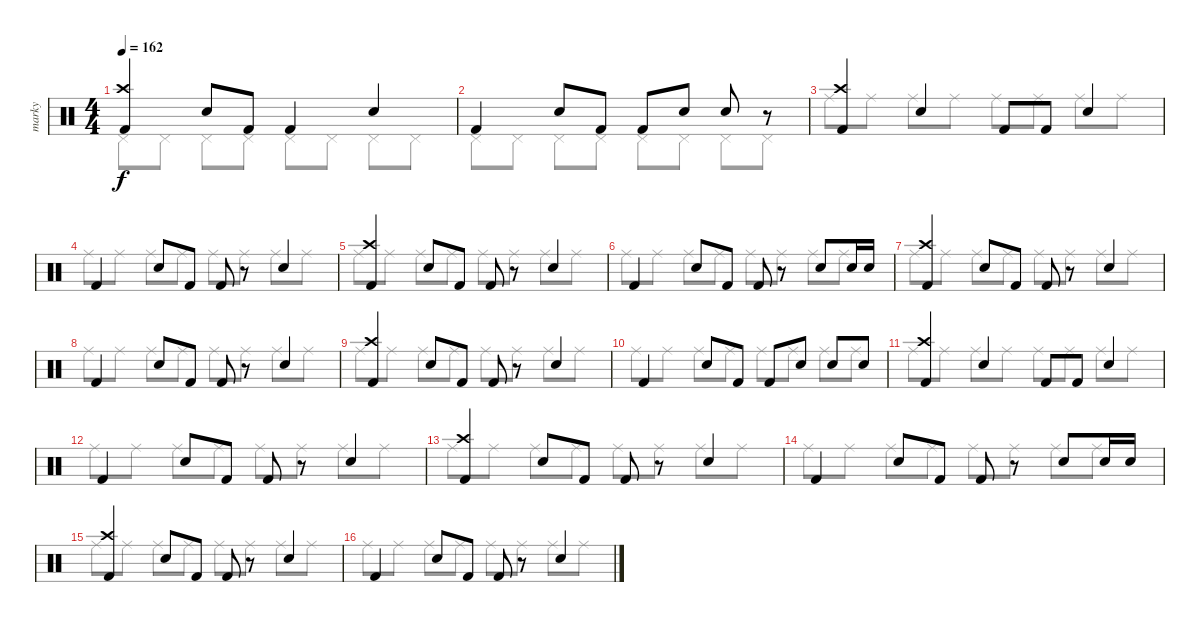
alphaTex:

\track ("marky" "marky") {instrument percussion}
\staff {score}
\articulation defaults
\voice
\ts (4 4)
\tempo 162
\clef neutral
\ks c
("Kick (hit) 2" "Crash high (hit)").4{dy f} "Electric Snare (hit)".8 "Kick (hit) 2".8 "Kick (hit) 2".4 "Electric Snare (hit)".4 |
"Kick (hit) 2".4 "Electric Snare (hit)".8 "Kick (hit) 2".8 "Kick (hit) 2".8 "Electric Snare (hit)".8 "Electric Snare (hit)".8 r.8 |
("Kick (hit) 2" "Crash high (hit)").4 "Electric Snare (hit)".4 "Kick (hit) 2".8 "Kick (hit) 2".8 "Electric Snare (hit)".4 |
"Kick (hit) 2".4 "Electric Snare (hit)".8 "Kick (hit) 2".8 "Kick (hit) 2".8 r.8 "Electric Snare (hit)".4 |
("Kick (hit) 2" "Crash high (hit)").4 "Electric Snare (hit)".8 "Kick (hit) 2".8 "Kick (hit) 2".8 r.8 "Electric Snare (hit)".4 |
"Kick (hit) 2".4 "Electric Snare (hit)".8 "Kick (hit) 2".8 "Kick (hit) 2".8 r.8 "Electric Snare (hit)".8 "Electric Snare (hit)".16 "Electric Snare (hit)".16 |
("Kick (hit) 2" "Crash high (hit)").4 "Electric Snare (hit)".8 "Kick (hit) 2".8 "Kick (hit) 2".8 r.8 "Electric Snare (hit)".4 |
"Kick (hit) 2".4 "Electric Snare (hit)".8 "Kick (hit) 2".8 "Kick (hit) 2".8 r.8 "Electric Snare (hit)".4 |
("Kick (hit) 2" "Crash high (hit)").4 "Electric Snare (hit)".8 "Kick (hit) 2".8 "Kick (hit) 2".8 r.8 "Electric Snare (hit)".4 |
"Kick (hit) 2".4 "Electric Snare (hit)".8 "Kick (hit) 2".8 "Kick (hit) 2".8 "Electric Snare (hit)".8 "Electric Snare (hit)".8 "Electric Snare (hit)".8 |
("Kick (hit) 2" "Crash high (hit)").4 "Electric Snare (hit)".4 "Kick (hit) 2".8 "Kick (hit) 2".8 "Electric Snare (hit)".4 |
"Kick (hit) 2".4 "Electric Snare (hit)".8 "Kick (hit) 2".8 "Kick (hit) 2".8 r.8 "Electric Snare (hit)".4 |
("Kick (hit) 2" "Crash high (hit)").4 "Electric Snare (hit)".8 "Kick (hit) 2".8 "Kick (hit) 2".8 r.8 "Electric Snare (hit)".4 |
"Kick (hit) 2".4 "Electric Snare (hit)".8 "Kick (hit) 2".8 "Kick (hit) 2".8 r.8 "Electric Snare (hit)".8 "Electric Snare (hit)".16 "Electric Snare (hit)".16 |
("Kick (hit) 2" "Crash high (hit)").4 "Electric Snare (hit)".8 "Kick (hit) 2".8 "Kick (hit) 2".8 r.8 "Electric Snare (hit)".4 |
"Kick (hit) 2".4 "Electric Snare (hit)".8 "Kick (hit) 2".8 "Kick (hit) 2".8 r.8 "Electric Snare (hit)".4
\voice
\clef neutral
\ottava regular
\simile none
\ks c "Pedal Hi-Hat (hit)".8{dy f} "Pedal Hi-Hat (hit)".8 "Pedal Hi-Hat (hit)".8 "Pedal Hi-Hat (hit)".8 "Pedal Hi-Hat (hit)".8 "Pedal Hi-Hat (hit)".8 "Pedal Hi-Hat (hit)".8 "Pedal Hi-Hat (hit)".8
|
"Pedal Hi-Hat (hit)".8 "Pedal Hi-Hat (hit)".8 "Pedal Hi-Hat (hit)".8 "Pedal Hi-Hat (hit)".8 "Pedal Hi-Hat (hit)".8 "Pedal Hi-Hat (hit)".8 "Pedal Hi-Hat (hit)".8 "Pedal Hi-Hat (hit)".8 |
"Ride (middle)".8 "Ride (middle)".8 "Ride (middle)".8 "Ride (middle)".8 "Ride (middle)".8 "Ride (middle)".8 "Ride (middle)".8 "Ride (middle)".8 |
"Ride (middle)".8 "Ride (middle)".8 "Ride (middle)".8 "Ride (middle)".8 "Ride (middle)".8 "Ride (middle)".8 "Ride (middle)".8 "Ride (middle)".8 |
"Ride (middle)".8 "Ride (middle)".8 "Ride (middle)".8 "Ride (middle)".8 "Ride (middle)".8 "Ride (middle)".8 "Ride (middle)".8 "Ride (middle)".8 |
"Ride (middle)".8 "Ride (middle)".8 "Ride (middle)".8 "Ride (middle)".8 "Ride (middle)".8 "Ride (middle)".8 "Ride (middle)".8 "Ride (middle)".8 |
"Ride (middle)".8 "Ride (middle)".8 "Ride (middle)".8 "Ride (middle)".8 "Ride (middle)".8 "Ride (middle)".8 "Ride (middle)".8 "Ride (middle)".8 |
"Ride (middle)".8 "Ride (middle)".8 "Ride (middle)".8 "Ride (middle)".8 "Ride (middle)".8 "Ride (middle)".8 "Ride (middle)".8 "Ride (middle)".8 |
"Ride (middle)".8 "Ride (middle)".8 "Ride (middle)".8 "Ride (middle)".8 "Ride (middle)".8 "Ride (middle)".8 "Ride (middle)".8 "Ride (middle)".8 |
"Ride (middle)".8 "Ride (middle)".8 "Ride (middle)".8 "Ride (middle)".8 "Ride (middle)".8 "Ride (middle)".8 "Ride (middle)".8 "Ride (middle)".8 |
"Ride (middle)".8 "Ride (middle)".8 "Ride (middle)".8 "Ride (middle)".8 "Ride (middle)".8 "Ride (middle)".8 "Ride (middle)".8 "Ride (middle)".8 |
"Ride (middle)".8 "Ride (middle)".8 "Ride (middle)".8 "Ride (middle)".8 "Ride (middle)".8 "Ride (middle)".8 "Ride (middle)".8 "Ride (middle)".8 |
"Ride (middle)".8 "Ride (middle)".8 "Ride (middle)".8 "Ride (middle)".8 "Ride (middle)".8 "Ride (middle)".8 "Ride (middle)".8 "Ride (middle)".8 |
"Ride (middle)".8 "Ride (middle)".8 "Ride (middle)".8 "Ride (middle)".8 "Ride (middle)".8 "Ride (middle)".8 "Ride (middle)".8 "Ride (middle)".8 |
"Ride (middle)".8 "Ride (middle)".8 "Ride (middle)".8 "Ride (middle)".8 "Ride (middle)".8 "Ride (middle)".8 "Ride (middle)".8 "Ride (middle)".8 |
"Ride (middle)".8 "Ride (middle)".8 "Ride (middle)".8 "Ride (middle)".8 "Ride (middle)".8 "Ride (middle)".8 "Ride (middle)".8 "Ride (middle)".8
